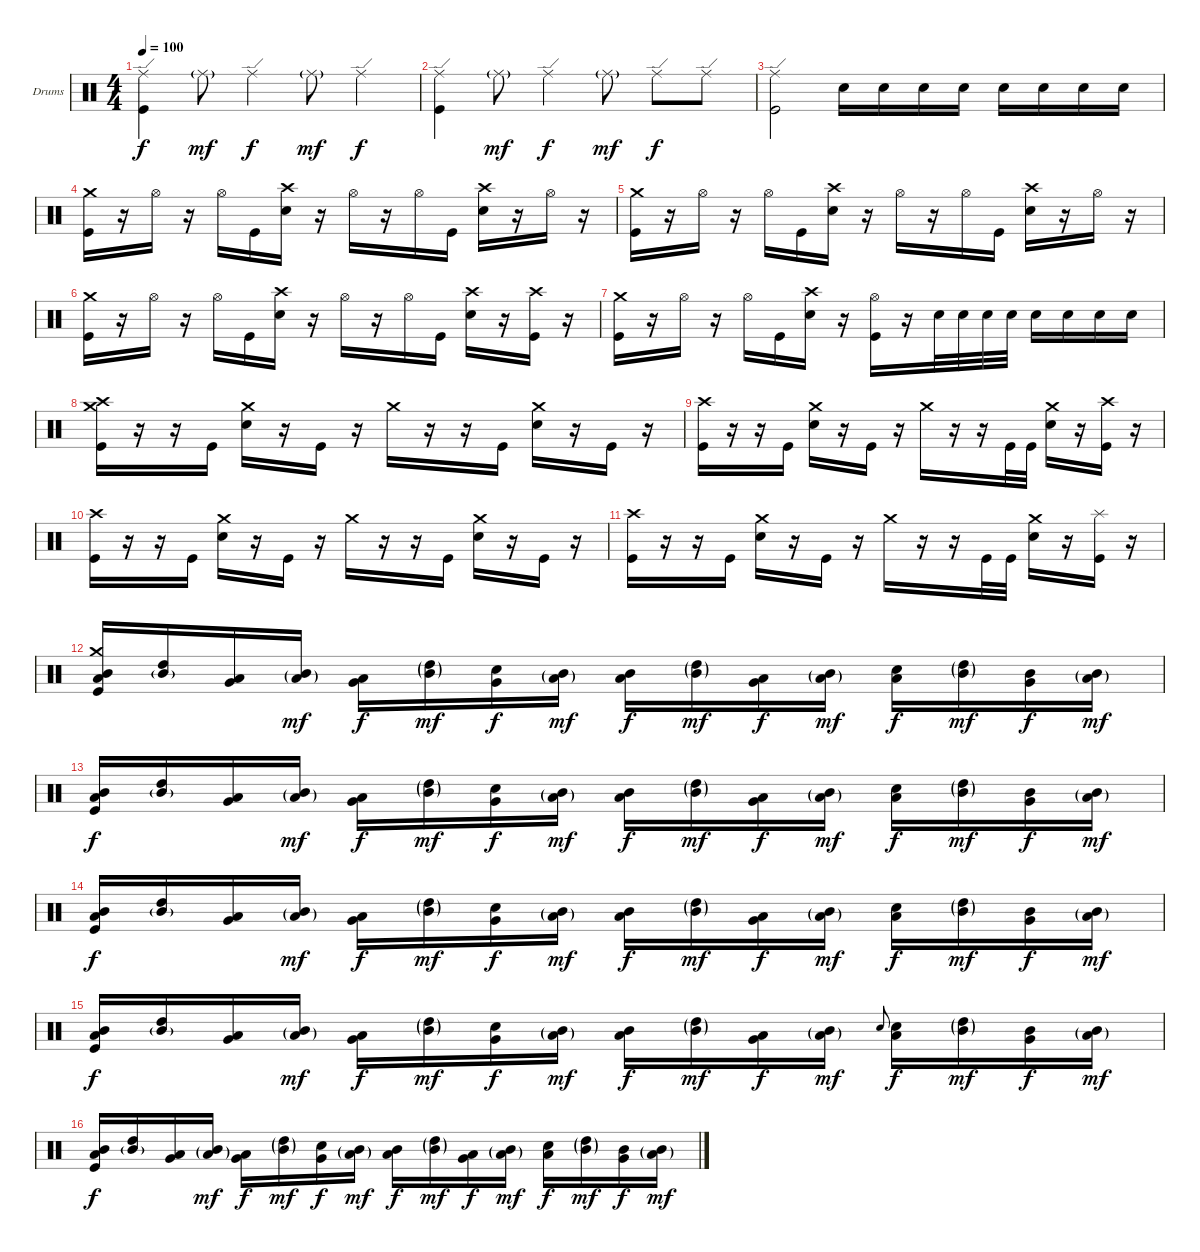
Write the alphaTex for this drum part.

\bracketExtendMode groupsimilarinstruments
\firstSystemTrackNameOrientation horizontal
\otherSystemsTrackNameOrientation horizontal
\track ("Drumkit (Christoph)" "Drums") {instrument percussion}
\staff {score}
\articulation defaults
\ts (4 4)
\tempo 100
\clef neutral
\ks c
("Ride (edge)" "Kick (hit)").4{dy f} "Ride (middle)"{g}.8{dy mf} "Ride (edge)".4{dy f} "Ride (middle)"{g}.8{dy mf} "Ride (edge)".4{dy f} |
("Ride (edge)" "Kick (hit)").4 "Ride (middle)"{g}.8{dy mf} "Ride (edge)".4{dy f} "Ride (middle)"{g}.8{dy mf} "Ride (edge)".8{dy f} "Ride (edge)".8 |
("Ride (edge)" "Kick (hit)").2 "Snare (hit) 2".16 "Snare (hit) 2".16 "Snare (hit) 2".16 "Snare (hit) 2".16 "Snare (hit) 2".16 "Snare (hit) 2".16 "Snare (hit) 2".16 "Snare (hit) 2".16 |
("Crash medium (hit)" "Kick (hit)").16 r.16 "Hi-Hat (open)".16 r.16 "Hi-Hat (open)".16 "Kick (hit)".16 ("Crash high (hit)" "Snare (hit) 2").16 r.16 "Hi-Hat (open)".16 r.16 "Hi-Hat (open)".16 "Kick (hit)".16 ("Crash high (hit)" "Snare (hit) 2").16 r.16 "Hi-Hat (open)".16 r.16 |
("Crash medium (hit)" "Kick (hit)").16 r.16 "Hi-Hat (open)".16 r.16 "Hi-Hat (open)".16 "Kick (hit)".16 ("Crash high (hit)" "Snare (hit) 2").16 r.16 "Hi-Hat (open)".16 r.16 "Hi-Hat (open)".16 "Kick (hit)".16 ("Crash high (hit)" "Snare (hit) 2").16 r.16 "Hi-Hat (open)".16 r.16 |
("Crash medium (hit)" "Kick (hit)").16 r.16 "Hi-Hat (open)".16 r.16 "Hi-Hat (open)".16 "Kick (hit)".16 ("Crash high (hit)" "Snare (hit) 2").16 r.16 "Hi-Hat (open)".16 r.16 "Hi-Hat (open)".16 "Kick (hit)".16 ("Crash high (hit)" "Snare (hit) 2").16 r.16 ("Crash high (hit)" "Kick (hit)").16 r.16 |
("Crash medium (hit)" "Kick (hit)").16 r.16 "Hi-Hat (open)".16 r.16 "Hi-Hat (open)".16 "Kick (hit)".16 ("Crash high (hit)" "Snare (hit) 2").16 r.16 ("Hi-Hat (open)" "Kick (hit)").16 r.16 "Snare (hit) 2".32 "Snare (hit) 2".32 "Snare (hit) 2".32 "Snare (hit) 2".32 "Snare (hit) 2".16 "Snare (hit) 2".16 "Snare (hit) 2".16 "Snare (hit) 2".16 |
("Crash medium (hit)" "Crash high (hit)" "Kick (hit)").16 r.16 r.16 "Kick (hit)".16 ("Crash medium (hit)" "Snare (hit) 2").16 r.16 "Kick (hit)".16 r.16 "Crash medium (hit)".16 r.16 r.16 "Kick (hit)".16 ("Crash medium (hit)" "Snare (hit) 2").16 r.16 "Kick (hit)".16 r.16 |
("Crash high (hit)" "Kick (hit)").16 r.16 r.16 "Kick (hit)".16 ("Crash medium (hit)" "Snare (hit) 2").16 r.16 "Kick (hit)".16 r.16 "Crash medium (hit)".16 r.16 r.16 "Kick (hit)".32 "Kick (hit)".32 ("Crash medium (hit)" "Snare (hit) 2").16 r.16 ("Crash high (hit)" "Kick (hit)").16 r.16 |
("Crash high (hit)" "Kick (hit)").16 r.16 r.16 "Kick (hit)".16 ("Crash medium (hit)" "Snare (hit) 2").16 r.16 "Kick (hit)".16 r.16 "Crash medium (hit)".16 r.16 r.16 "Kick (hit)".16 ("Crash medium (hit)" "Snare (hit) 2").16 r.16 "Kick (hit)".16 r.16 |
("Crash high (hit)" "Kick (hit)").16 r.16 r.16 "Kick (hit)".16 ("Crash medium (hit)" "Snare (hit) 2").16 r.16 "Kick (hit)".16 r.16 "Crash medium (hit)".16 r.16 r.16 "Kick (hit)".32 "Kick (hit)".32 ("Crash medium (hit)" "Snare (hit) 2").16 r.16 ("Splash (hit)" "Kick (hit)").16 r.16 |
("Crash medium (hit)" "Low Tom (hit)" "Mid Tom (hit)" "Kick (hit)").16 ("Mid Tom (hit)"{g} "High Tom (hit)").16 ("Very Low Tom (hit)" "Low Tom (hit)").16 ("Low Tom (hit)"{g} "Mid Tom (hit)"{g}).16{dy mf} ("Low Tom (hit)" "Very Low Tom (hit)").16{dy f} ("Mid Tom (hit)"{g} "High Tom (hit)"{g}).16{dy mf} ("Very Low Tom (hit)" "Snare (hit) 2").16{dy f} ("Mid Tom (hit)"{g} "Low Tom (hit)"{g}).16{dy mf} ("Low Tom (hit)" "Mid Tom (hit)").16{dy f} ("High Tom (hit)"{g} "Mid Tom (hit)"{g}).16{dy mf} ("Very Low Tom (hit)" "Low Tom (hit)").16{dy f} ("Mid Tom (hit)"{g} "Low Tom (hit)"{g}).16{dy mf} ("Low Tom (hit)" "Snare (hit) 2").16{dy f} ("High Tom (hit)"{g} "Mid Tom (hit)"{g}).16{dy mf} ("Very Low Tom (hit)" "Mid Tom (hit)").16{dy f} ("Mid Tom (hit)"{g} "Low Tom (hit)"{g}).16{dy mf} |
("Low Tom (hit)" "Mid Tom (hit)" "Kick (hit)").16{dy f} ("Mid Tom (hit)"{g} "High Tom (hit)").16 ("Very Low Tom (hit)" "Low Tom (hit)").16 ("Low Tom (hit)"{g} "Mid Tom (hit)"{g}).16{dy mf} ("Low Tom (hit)" "Very Low Tom (hit)").16{dy f} ("Mid Tom (hit)"{g} "High Tom (hit)"{g}).16{dy mf} ("Very Low Tom (hit)" "Snare (hit) 2").16{dy f} ("Mid Tom (hit)"{g} "Low Tom (hit)"{g}).16{dy mf} ("Low Tom (hit)" "Mid Tom (hit)").16{dy f} ("High Tom (hit)"{g} "Mid Tom (hit)"{g}).16{dy mf} ("Very Low Tom (hit)" "Low Tom (hit)").16{dy f} ("Mid Tom (hit)"{g} "Low Tom (hit)"{g}).16{dy mf} ("Low Tom (hit)" "Snare (hit) 2").16{dy f} ("High Tom (hit)"{g} "Mid Tom (hit)"{g}).16{dy mf} ("Very Low Tom (hit)" "Mid Tom (hit)").16{dy f} ("Mid Tom (hit)"{g} "Low Tom (hit)"{g}).16{dy mf} |
("Low Tom (hit)" "Mid Tom (hit)" "Kick (hit)").16{dy f} ("Mid Tom (hit)"{g} "High Tom (hit)").16 ("Very Low Tom (hit)" "Low Tom (hit)").16 ("Low Tom (hit)"{g} "Mid Tom (hit)"{g}).16{dy mf} ("Low Tom (hit)" "Very Low Tom (hit)").16{dy f} ("Mid Tom (hit)"{g} "High Tom (hit)"{g}).16{dy mf} ("Very Low Tom (hit)" "Snare (hit) 2").16{dy f} ("Mid Tom (hit)"{g} "Low Tom (hit)"{g}).16{dy mf} ("Low Tom (hit)" "Mid Tom (hit)").16{dy f} ("High Tom (hit)"{g} "Mid Tom (hit)"{g}).16{dy mf} ("Very Low Tom (hit)" "Low Tom (hit)").16{dy f} ("Mid Tom (hit)"{g} "Low Tom (hit)"{g}).16{dy mf} ("Low Tom (hit)" "Snare (hit) 2").16{dy f} ("High Tom (hit)"{g} "Mid Tom (hit)"{g}).16{dy mf} ("Very Low Tom (hit)" "Mid Tom (hit)").16{dy f} ("Mid Tom (hit)"{g} "Low Tom (hit)"{g}).16{dy mf} |
("Low Tom (hit)" "Mid Tom (hit)" "Kick (hit)").16{dy f} ("Mid Tom (hit)"{g} "High Tom (hit)").16 ("Very Low Tom (hit)" "Low Tom (hit)").16 ("Low Tom (hit)"{g} "Mid Tom (hit)"{g}).16{dy mf} ("Low Tom (hit)" "Very Low Tom (hit)").16{dy f} ("Mid Tom (hit)"{g} "High Tom (hit)"{g}).16{dy mf} ("Very Low Tom (hit)" "Snare (hit) 2").16{dy f} ("Mid Tom (hit)"{g} "Low Tom (hit)"{g}).16{dy mf} ("Low Tom (hit)" "Mid Tom (hit)").16{dy f} ("High Tom (hit)"{g} "Mid Tom (hit)"{g}).16{dy mf} ("Very Low Tom (hit)" "Low Tom (hit)").16{dy f} ("Mid Tom (hit)"{g} "Low Tom (hit)"{g}).16{dy mf} "Snare (hit) 2".8{gr onbeat} ("Low Tom (hit)" "Snare (hit) 2").16{dy f} ("High Tom (hit)"{g} "Mid Tom (hit)"{g}).16{dy mf} ("Very Low Tom (hit)" "Mid Tom (hit)").16{dy f} ("Mid Tom (hit)"{g} "Low Tom (hit)"{g}).16{dy mf} |
("Low Tom (hit)" "Mid Tom (hit)" "Kick (hit)").16{dy f} ("Mid Tom (hit)"{g} "High Tom (hit)").16 ("Very Low Tom (hit)" "Low Tom (hit)").16 ("Low Tom (hit)"{g} "Mid Tom (hit)"{g}).16{dy mf} ("Low Tom (hit)" "Very Low Tom (hit)").16{dy f} ("Mid Tom (hit)"{g} "High Tom (hit)"{g}).16{dy mf} ("Very Low Tom (hit)" "Snare (hit) 2").16{dy f} ("Mid Tom (hit)"{g} "Low Tom (hit)"{g}).16{dy mf} ("Low Tom (hit)" "Mid Tom (hit)").16{dy f} ("High Tom (hit)"{g} "Mid Tom (hit)"{g}).16{dy mf} ("Very Low Tom (hit)" "Low Tom (hit)").16{dy f} ("Mid Tom (hit)"{g} "Low Tom (hit)"{g}).16{dy mf} ("Low Tom (hit)" "Snare (hit) 2").16{dy f} ("High Tom (hit)"{g} "Mid Tom (hit)"{g}).16{dy mf} ("Very Low Tom (hit)" "Mid Tom (hit)").16{dy f} ("Mid Tom (hit)"{g} "Low Tom (hit)"{g}).16{dy mf}
